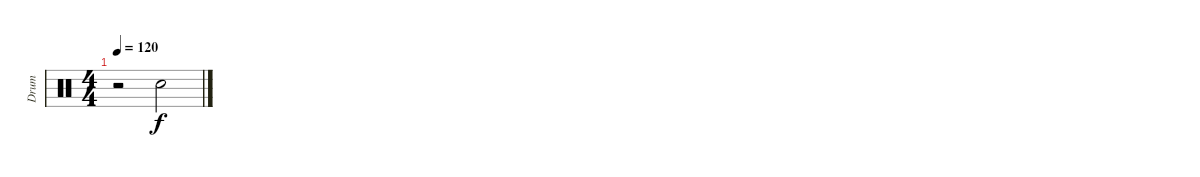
\track ("Drum" "Drum") {instrument percussion}
\staff {score}
\articulation defaults
\ts (4 4)
\tempo 120
\clef neutral
\ks c
r.2{dy f} "Snare (hit) 2".2
